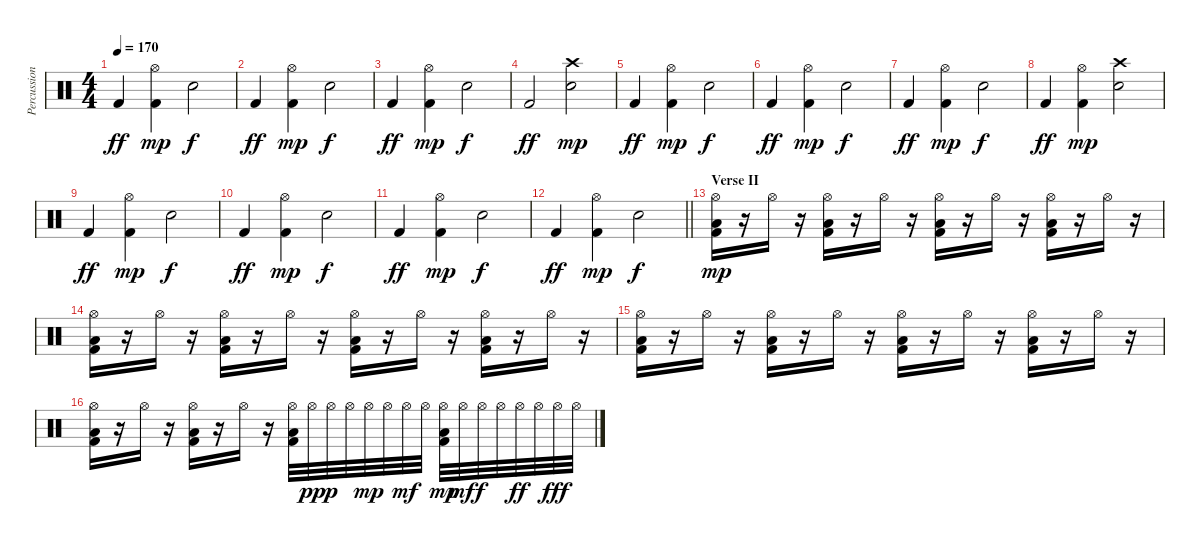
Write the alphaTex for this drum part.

\track ("Percussion" "Percussion") {instrument percussion}
\staff {score}
\articulation defaults
\ts (4 4)
\tempo 170
\clef neutral
\ks c "Kick (hit) 2".4{dy ff}
("Hi-Hat (open)" "Kick (hit) 2").4{dy mp} "Electric Snare (hit)".2{dy f} |
"Kick (hit) 2".4{dy ff} ("Hi-Hat (open)" "Kick (hit) 2").4{dy mp} "Electric Snare (hit)".2{dy f} |
"Kick (hit) 2".4{dy ff} ("Hi-Hat (open)" "Kick (hit) 2").4{dy mp} "Electric Snare (hit)".2{dy f} |
"Kick (hit) 2".2{dy ff} ("Crash high (hit)" "Electric Snare (hit)").2{dy mp} |
"Kick (hit) 2".4{dy ff} ("Hi-Hat (open)" "Kick (hit) 2").4{dy mp} "Electric Snare (hit)".2{dy f} |
"Kick (hit) 2".4{dy ff} ("Hi-Hat (open)" "Kick (hit) 2").4{dy mp} "Electric Snare (hit)".2{dy f} |
"Kick (hit) 2".4{dy ff} ("Hi-Hat (open)" "Kick (hit) 2").4{dy mp} "Electric Snare (hit)".2{dy f} |
"Kick (hit) 2".4{dy ff} ("Hi-Hat (open)" "Kick (hit) 2").4{dy mp} ("Crash high (hit)" "Electric Snare (hit)").2 |
"Kick (hit) 2".4{dy ff} ("Hi-Hat (open)" "Kick (hit) 2").4{dy mp} "Electric Snare (hit)".2{dy f} |
"Kick (hit) 2".4{dy ff} ("Hi-Hat (open)" "Kick (hit) 2").4{dy mp} "Electric Snare (hit)".2{dy f} |
"Kick (hit) 2".4{dy ff} ("Hi-Hat (open)" "Kick (hit) 2").4{dy mp} "Electric Snare (hit)".2{dy f} |
\barLineRight lightlight "Kick (hit) 2".4{dy ff}
("Hi-Hat (open)" "Kick (hit) 2").4{dy mp} "Electric Snare (hit)".2{dy f} |
\section ("" "Verse II")
("Hi-Hat (open)" "Low Floor Tom (hit)" "Kick (hit) 2").16{dy mp} r.16 "Hi-Hat (open)".16 r.16 ("Hi-Hat (open)" "Low Floor Tom (hit)" "Kick (hit) 2").16 r.16 "Hi-Hat (open)".16 r.16 ("Hi-Hat (open)" "Low Floor Tom (hit)" "Kick (hit) 2").16 r.16 "Hi-Hat (open)".16 r.16 ("Hi-Hat (open)" "Low Floor Tom (hit)" "Kick (hit) 2").16 r.16 "Hi-Hat (open)".16 r.16 |
("Hi-Hat (open)" "Low Floor Tom (hit)" "Kick (hit) 2").16 r.16 "Hi-Hat (open)".16 r.16 ("Hi-Hat (open)" "Low Floor Tom (hit)" "Kick (hit) 2").16 r.16 "Hi-Hat (open)".16 r.16 ("Hi-Hat (open)" "Low Floor Tom (hit)" "Kick (hit) 2").16 r.16 "Hi-Hat (open)".16 r.16 ("Hi-Hat (open)" "Low Floor Tom (hit)" "Kick (hit) 2").16 r.16 "Hi-Hat (open)".16 r.16 |
("Hi-Hat (open)" "Low Floor Tom (hit)" "Kick (hit) 2").16 r.16 "Hi-Hat (open)".16 r.16 ("Hi-Hat (open)" "Low Floor Tom (hit)" "Kick (hit) 2").16 r.16 "Hi-Hat (open)".16 r.16 ("Hi-Hat (open)" "Low Floor Tom (hit)" "Kick (hit) 2").16 r.16 "Hi-Hat (open)".16 r.16 ("Hi-Hat (open)" "Low Floor Tom (hit)" "Kick (hit) 2").16 r.16 "Hi-Hat (open)".16 r.16 |
("Hi-Hat (open)" "Low Floor Tom (hit)" "Kick (hit) 2").16 r.16 "Hi-Hat (open)".16 r.16 ("Hi-Hat (open)" "Low Floor Tom (hit)" "Kick (hit) 2").16 r.16 "Hi-Hat (open)".16 r.16 ("Hi-Hat (open)" "Low Floor Tom (hit)" "Kick (hit) 2").32 "Hi-Hat (open)".32{dy pp} "Hi-Hat (open)".32{dy p} "Hi-Hat (open)".32 "Hi-Hat (open)".32{dy mp} "Hi-Hat (open)".32 "Hi-Hat (open)".32{dy mf} "Hi-Hat (open)".32 ("Hi-Hat (open)" "Low Floor Tom (hit)" "Kick (hit) 2").32{dy mp} "Hi-Hat (open)".32{dy mf} "Hi-Hat (open)".32{dy f} "Hi-Hat (open)".32 "Hi-Hat (open)".32{dy ff} "Hi-Hat (open)".32 "Hi-Hat (open)".32{dy fff} "Hi-Hat (open)".32
